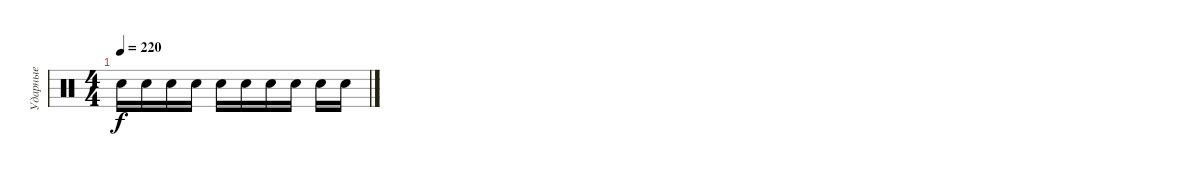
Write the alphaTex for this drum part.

\track ("Ударные" "Ударные") {instrument percussion}
\staff {score}
\articulation defaults
\ts (4 4)
\tempo 220
\clef neutral
\ks c "Electric Snare (hit)".16{dy f} "Electric Snare (hit)".16 "Electric Snare (hit)".16 "Electric Snare (hit)".16 "Electric Snare (hit)".16 "Electric Snare (hit)".16 "Electric Snare (hit)".16 "Electric Snare (hit)".16 "Electric Snare (hit)".16 "Electric Snare (hit)".16
